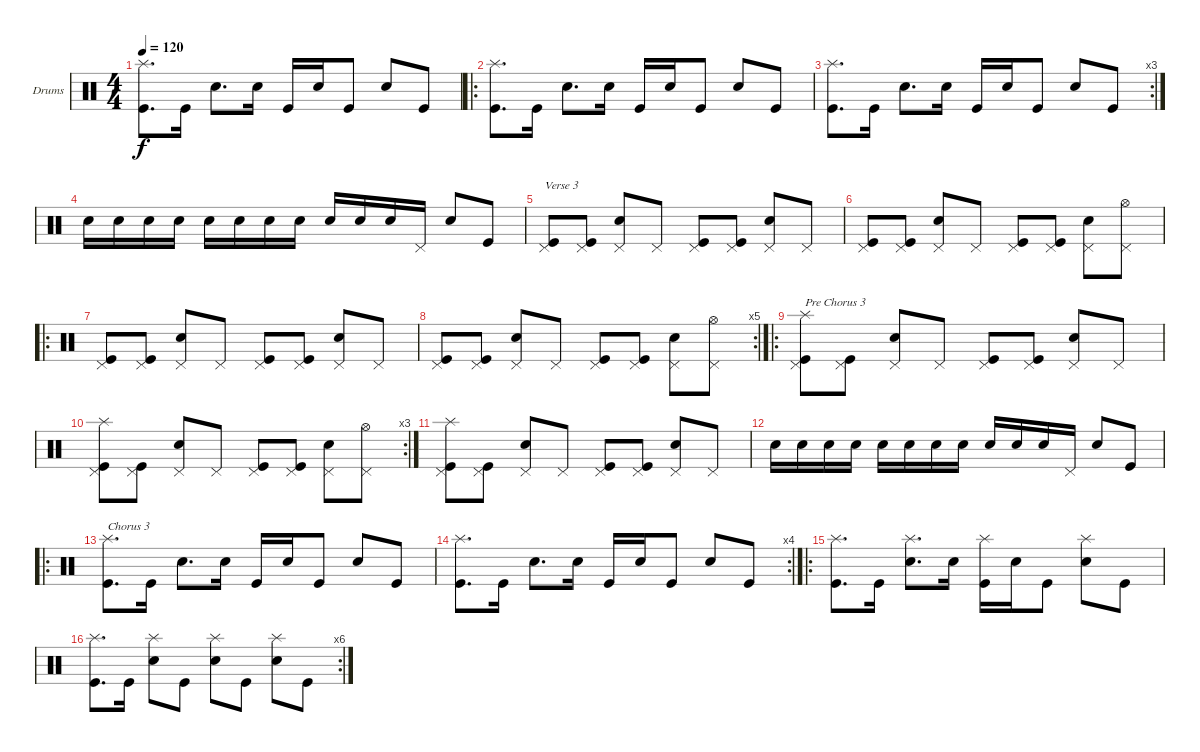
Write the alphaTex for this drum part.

\bracketExtendMode groupsimilarinstruments
\firstSystemTrackNameOrientation horizontal
\otherSystemsTrackNameOrientation horizontal
\track ("Drumkit" "Drums") {instrument percussion}
\staff {score}
\articulation defaults
\ts (4 4)
\tempo 120
\clef neutral
\ks c
("Splash (hit)" "Kick (hit)").8{d dy f} "Kick (hit)".16 "Snare (hit) 2".8{d} "Snare (hit) 2".16 "Kick (hit)".16 "Snare (hit) 2".16 "Kick (hit)".8 "Snare (hit) 2".8 "Kick (hit)".8 |
\ro
("Splash (hit)" "Kick (hit)").8{d} "Kick (hit)".16 "Snare (hit) 2".8{d} "Snare (hit) 2".16 "Kick (hit)".16 "Snare (hit) 2".16 "Kick (hit)".8 "Snare (hit) 2".8 "Kick (hit)".8 |
\rc 3
("Splash (hit)" "Kick (hit)").8{d} "Kick (hit)".16 "Snare (hit) 2".8{d} "Snare (hit) 2".16 "Kick (hit)".16 "Snare (hit) 2".16 "Kick (hit)".8 "Snare (hit) 2".8 "Kick (hit)".8 |
"Snare (hit) 2".16 "Snare (hit) 2".16 "Snare (hit) 2".16 "Snare (hit) 2".16 "Snare (hit) 2".16 "Snare (hit) 2".16 "Snare (hit) 2".16 "Snare (hit) 2".16 "Snare (hit) 2".16 "Snare (hit) 2".16 "Snare (hit) 2".16 "Pedal Hi-Hat (hit)".16 "Snare (hit) 2".8 "Kick (hit)".8 |
("Pedal Hi-Hat (hit)" "Kick (hit)").8{txt "Verse 3"} ("Pedal Hi-Hat (hit)" "Kick (hit)").8 ("Pedal Hi-Hat (hit)" "Snare (hit) 2").8 "Pedal Hi-Hat (hit)".8 ("Pedal Hi-Hat (hit)" "Kick (hit)").8 ("Pedal Hi-Hat (hit)" "Kick (hit)").8 ("Pedal Hi-Hat (hit)" "Snare (hit) 2").8 "Pedal Hi-Hat (hit)".8 |
("Pedal Hi-Hat (hit)" "Kick (hit)").8 ("Pedal Hi-Hat (hit)" "Kick (hit)").8 ("Pedal Hi-Hat (hit)" "Snare (hit) 2").8 "Pedal Hi-Hat (hit)".8 ("Pedal Hi-Hat (hit)" "Kick (hit)").8 ("Pedal Hi-Hat (hit)" "Kick (hit)").8 ("Pedal Hi-Hat (hit)" "Snare (hit) 2").8 ("Pedal Hi-Hat (hit)" "Hi-Hat (open)").8 |
\ro
("Pedal Hi-Hat (hit)" "Kick (hit)").8 ("Pedal Hi-Hat (hit)" "Kick (hit)").8 ("Pedal Hi-Hat (hit)" "Snare (hit) 2").8 "Pedal Hi-Hat (hit)".8 ("Pedal Hi-Hat (hit)" "Kick (hit)").8 ("Pedal Hi-Hat (hit)" "Kick (hit)").8 ("Pedal Hi-Hat (hit)" "Snare (hit) 2").8 "Pedal Hi-Hat (hit)".8 |
\rc 5
("Pedal Hi-Hat (hit)" "Kick (hit)").8 ("Pedal Hi-Hat (hit)" "Kick (hit)").8 ("Pedal Hi-Hat (hit)" "Snare (hit) 2").8 "Pedal Hi-Hat (hit)".8 ("Pedal Hi-Hat (hit)" "Kick (hit)").8 ("Pedal Hi-Hat (hit)" "Kick (hit)").8 ("Pedal Hi-Hat (hit)" "Snare (hit) 2").8 ("Pedal Hi-Hat (hit)" "Hi-Hat (open)").8 |
\ro
("Splash (hit)" "Pedal Hi-Hat (hit)" "Kick (hit)").8{txt "Pre Chorus 3"} ("Pedal Hi-Hat (hit)" "Kick (hit)").8 ("Pedal Hi-Hat (hit)" "Snare (hit) 2").8 "Pedal Hi-Hat (hit)".8 ("Pedal Hi-Hat (hit)" "Kick (hit)").8 ("Pedal Hi-Hat (hit)" "Kick (hit)").8 ("Pedal Hi-Hat (hit)" "Snare (hit) 2").8 "Pedal Hi-Hat (hit)".8 |
\rc 3
("Splash (hit)" "Pedal Hi-Hat (hit)" "Kick (hit)").8 ("Pedal Hi-Hat (hit)" "Kick (hit)").8 ("Pedal Hi-Hat (hit)" "Snare (hit) 2").8 "Pedal Hi-Hat (hit)".8 ("Pedal Hi-Hat (hit)" "Kick (hit)").8 ("Pedal Hi-Hat (hit)" "Kick (hit)").8 ("Pedal Hi-Hat (hit)" "Snare (hit) 2").8 ("Pedal Hi-Hat (hit)" "Hi-Hat (open)").8 |
("Splash (hit)" "Pedal Hi-Hat (hit)" "Kick (hit)").8 ("Pedal Hi-Hat (hit)" "Kick (hit)").8 ("Pedal Hi-Hat (hit)" "Snare (hit) 2").8 "Pedal Hi-Hat (hit)".8 ("Pedal Hi-Hat (hit)" "Kick (hit)").8 ("Pedal Hi-Hat (hit)" "Kick (hit)").8 ("Pedal Hi-Hat (hit)" "Snare (hit) 2").8 "Pedal Hi-Hat (hit)".8 |
"Snare (hit) 2".16 "Snare (hit) 2".16 "Snare (hit) 2".16 "Snare (hit) 2".16 "Snare (hit) 2".16 "Snare (hit) 2".16 "Snare (hit) 2".16 "Snare (hit) 2".16 "Snare (hit) 2".16 "Snare (hit) 2".16 "Snare (hit) 2".16 "Pedal Hi-Hat (hit)".16 "Snare (hit) 2".8 "Kick (hit)".8 |
\ro
("Splash (hit)" "Kick (hit)").8{d txt "Chorus 3"} "Kick (hit)".16 "Snare (hit) 2".8{d} "Snare (hit) 2".16 "Kick (hit)".16 "Snare (hit) 2".16 "Kick (hit)".8 "Snare (hit) 2".8 "Kick (hit)".8 |
\rc 4
("Splash (hit)" "Kick (hit)").8{d} "Kick (hit)".16 "Snare (hit) 2".8{d} "Snare (hit) 2".16 "Kick (hit)".16 "Snare (hit) 2".16 "Kick (hit)".8 "Snare (hit) 2".8 "Kick (hit)".8 |
\ro
("Splash (hit)" "Kick (hit)").8{d} "Kick (hit)".16 ("Splash (hit)" "Snare (hit) 2").8{d} "Snare (hit) 2".16 ("Splash (hit)" "Kick (hit)").16 "Snare (hit) 2".16 "Kick (hit)".8 ("Splash (hit)" "Snare (hit) 2").8 "Kick (hit)".8 |
\rc 6
("Splash (hit)" "Kick (hit)").8{d} "Kick (hit)".16 ("Splash (hit)" "Snare (hit) 2").8 "Kick (hit)".8 ("Splash (hit)" "Snare (hit) 2").8 "Kick (hit)".8 ("Splash (hit)" "Snare (hit) 2").8 "Kick (hit)".8
